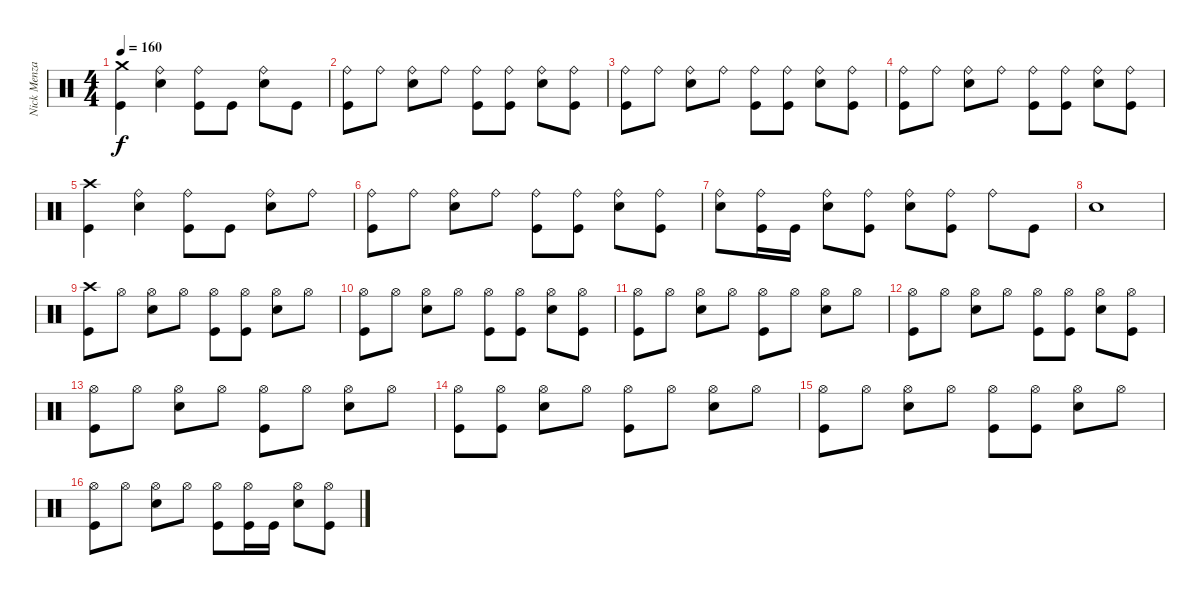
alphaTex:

\track ("Nick Menza" "Nick Menza") {instrument percussion}
\staff {score}
\articulation defaults
\ts (4 4)
\tempo 160
\clef neutral
\ks c
("Crash medium (hit)" "Kick (hit)").4{dy f} ("Ride (bell)" "Snare (hit) 2").4 ("Ride (bell)" "Kick (hit)").8 "Kick (hit)".8 ("Ride (bell)" "Snare (hit) 2").8 "Kick (hit)".8 |
("Ride (bell)" "Kick (hit)").8 "Ride (bell)".8 ("Ride (bell)" "Snare (hit) 2").8 "Ride (bell)".8 ("Ride (bell)" "Kick (hit)").8 ("Ride (bell)" "Kick (hit)").8 ("Ride (bell)" "Snare (hit) 2").8 ("Ride (bell)" "Kick (hit)").8 |
("Ride (bell)" "Kick (hit)").8 "Ride (bell)".8 ("Ride (bell)" "Snare (hit) 2").8 "Ride (bell)".8 ("Ride (bell)" "Kick (hit)").8 ("Ride (bell)" "Kick (hit)").8 ("Ride (bell)" "Snare (hit) 2").8 ("Ride (bell)" "Kick (hit)").8 |
("Ride (bell)" "Kick (hit)").8 "Ride (bell)".8 ("Ride (bell)" "Snare (hit) 2").8 "Ride (bell)".8 ("Ride (bell)" "Kick (hit)").8 ("Ride (bell)" "Kick (hit)").8 ("Ride (bell)" "Snare (hit) 2").8 ("Ride (bell)" "Kick (hit)").8 |
("Crash high (hit)" "Kick (hit)").4 ("Ride (bell)" "Snare (hit) 2").4 ("Ride (bell)" "Kick (hit)").8 "Kick (hit)".8 ("Ride (bell)" "Snare (hit) 2").8 "Ride (bell)".8 |
("Ride (bell)" "Kick (hit)").8 "Ride (bell)".8 ("Ride (bell)" "Snare (hit) 2").8 "Ride (bell)".8 ("Ride (bell)" "Kick (hit)").8 ("Ride (bell)" "Kick (hit)").8 ("Ride (bell)" "Snare (hit) 2").8 ("Ride (bell)" "Kick (hit)").8 |
("Ride (bell)" "Snare (hit) 2").8 ("Ride (bell)" "Kick (hit)").16 "Kick (hit)".16 ("Ride (bell)" "Snare (hit) 2").8 ("Ride (bell)" "Kick (hit)").8 ("Ride (bell)" "Snare (hit) 2").8 ("Ride (bell)" "Kick (hit)").8 "Ride (bell)".8 "Kick (hit)".8 |
"Snare (hit) 2".1 |
("Crash high (hit)" "Kick (hit)").8 "Hi-Hat (open)".8 ("Hi-Hat (open)" "Snare (hit) 2").8 "Hi-Hat (open)".8 ("Hi-Hat (open)" "Kick (hit)").8 ("Hi-Hat (open)" "Kick (hit)").8 ("Hi-Hat (open)" "Snare (hit) 2").8 "Hi-Hat (open)".8 |
("Hi-Hat (open)" "Kick (hit)").8 "Hi-Hat (open)".8 ("Hi-Hat (open)" "Snare (hit) 2").8 "Hi-Hat (open)".8 ("Hi-Hat (open)" "Kick (hit)").8 ("Hi-Hat (open)" "Kick (hit)").8 ("Hi-Hat (open)" "Snare (hit) 2").8 ("Hi-Hat (open)" "Kick (hit)").8 |
("Hi-Hat (open)" "Kick (hit)").8 "Hi-Hat (open)".8 ("Hi-Hat (open)" "Snare (hit) 2").8 "Hi-Hat (open)".8 ("Hi-Hat (open)" "Kick (hit)").8 "Hi-Hat (open)".8 ("Hi-Hat (open)" "Snare (hit) 2").8 "Hi-Hat (open)".8 |
("Hi-Hat (open)" "Kick (hit)").8 "Hi-Hat (open)".8 ("Hi-Hat (open)" "Snare (hit) 2").8 "Hi-Hat (open)".8 ("Hi-Hat (open)" "Kick (hit)").8 ("Hi-Hat (open)" "Kick (hit)").8 ("Hi-Hat (open)" "Snare (hit) 2").8 ("Hi-Hat (open)" "Kick (hit)").8 |
("Hi-Hat (open)" "Kick (hit)").8 "Hi-Hat (open)".8 ("Hi-Hat (open)" "Snare (hit) 2").8 "Hi-Hat (open)".8 ("Hi-Hat (open)" "Kick (hit)").8 "Hi-Hat (open)".8 ("Hi-Hat (open)" "Snare (hit) 2").8 "Hi-Hat (open)".8 |
("Hi-Hat (open)" "Kick (hit)").8 ("Hi-Hat (open)" "Kick (hit)").8 ("Hi-Hat (open)" "Snare (hit) 2").8 "Hi-Hat (open)".8 ("Hi-Hat (open)" "Kick (hit)").8 "Hi-Hat (open)".8 ("Hi-Hat (open)" "Snare (hit) 2").8 "Hi-Hat (open)".8 |
("Hi-Hat (open)" "Kick (hit)").8 "Hi-Hat (open)".8 ("Hi-Hat (open)" "Snare (hit) 2").8 "Hi-Hat (open)".8 ("Hi-Hat (open)" "Kick (hit)").8 ("Hi-Hat (open)" "Kick (hit)").8 ("Hi-Hat (open)" "Snare (hit) 2").8 "Hi-Hat (open)".8 |
("Hi-Hat (open)" "Kick (hit)").8 "Hi-Hat (open)".8 ("Hi-Hat (open)" "Snare (hit) 2").8 "Hi-Hat (open)".8 ("Hi-Hat (open)" "Kick (hit)").8 ("Hi-Hat (open)" "Kick (hit)").16 "Kick (hit)".16 ("Hi-Hat (open)" "Snare (hit) 2").8 ("Hi-Hat (open)" "Kick (hit)").8
